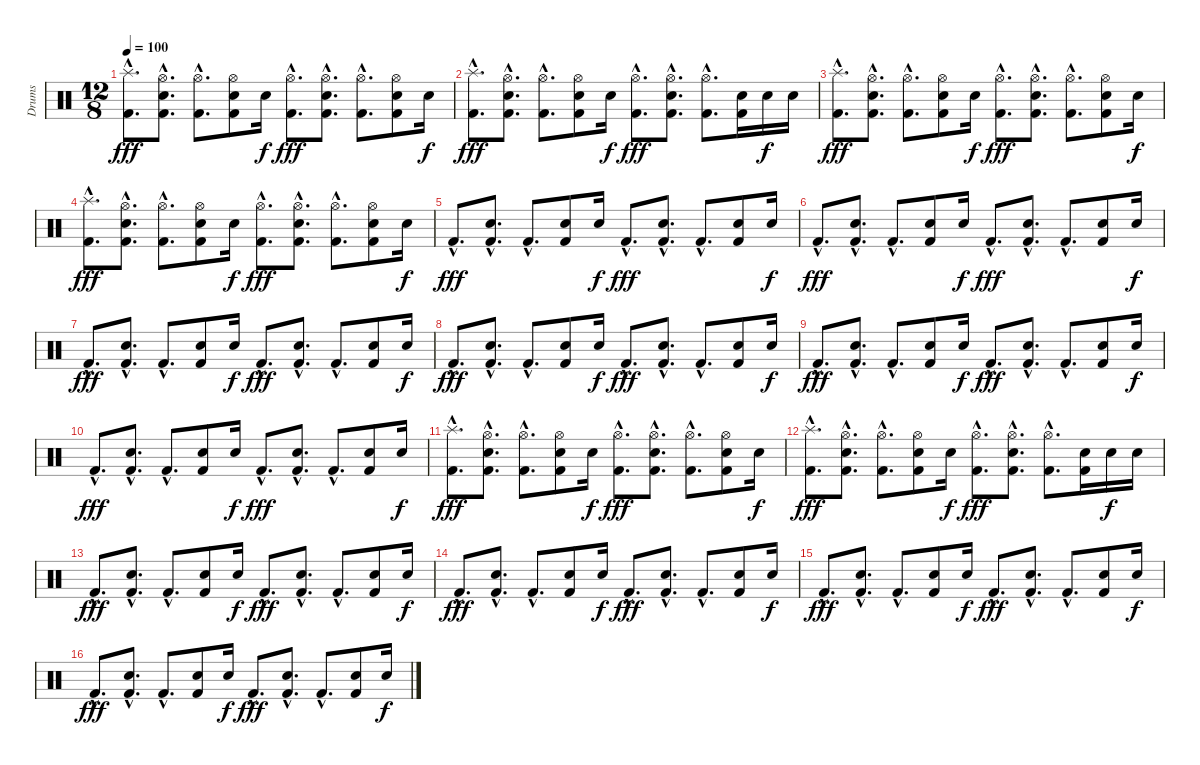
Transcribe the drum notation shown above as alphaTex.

\track ("Drums" "Drums") {instrument percussion}
\staff {score}
\articulation defaults
\ts (12 8)
\tempo 100
\clef neutral
\ks c
("Splash (hit)"{hac} "Kick (hit) 2"{hac}).8{d dy fff} ("Hi-Hat (open)"{hac} "Snare (hit) 2"{hac} "Kick (hit) 2"{hac}).8{d} ("Hi-Hat (open)"{hac} "Kick (hit) 2"{hac}).8{d} ("Hi-Hat (open)" "Snare (hit) 2" "Kick (hit) 2").8 "Snare (hit) 2".16{dy f} ("Hi-Hat (open)"{hac} "Kick (hit) 2"{hac}).8{d dy fff} ("Hi-Hat (open)"{hac} "Snare (hit) 2"{hac} "Kick (hit) 2"{hac}).8{d} ("Hi-Hat (open)"{hac} "Kick (hit) 2"{hac}).8{d} ("Hi-Hat (open)" "Snare (hit) 2" "Kick (hit) 2").8 "Snare (hit) 2".16{dy f} |
("Splash (hit)"{hac} "Kick (hit) 2"{hac}).8{d dy fff} ("Hi-Hat (open)"{hac} "Snare (hit) 2"{hac} "Kick (hit) 2"{hac}).8{d} ("Hi-Hat (open)"{hac} "Kick (hit) 2"{hac}).8{d} ("Hi-Hat (open)" "Snare (hit) 2" "Kick (hit) 2").8 "Snare (hit) 2".16{dy f} ("Hi-Hat (open)"{hac} "Kick (hit) 2"{hac}).8{d dy fff} ("Hi-Hat (open)"{hac} "Snare (hit) 2"{hac} "Kick (hit) 2"{hac}).8{d} ("Hi-Hat (open)"{hac} "Kick (hit) 2"{hac}).8{d} ("Snare (hit) 2" "Kick (hit) 2").16 "Snare (hit) 2".16{dy f} "Snare (hit) 2".16 |
("Splash (hit)"{hac} "Kick (hit) 2"{hac}).8{d dy fff} ("Hi-Hat (open)"{hac} "Snare (hit) 2"{hac} "Kick (hit) 2"{hac}).8{d} ("Hi-Hat (open)"{hac} "Kick (hit) 2"{hac}).8{d} ("Hi-Hat (open)" "Snare (hit) 2" "Kick (hit) 2").8 "Snare (hit) 2".16{dy f} ("Hi-Hat (open)"{hac} "Kick (hit) 2"{hac}).8{d dy fff} ("Hi-Hat (open)"{hac} "Snare (hit) 2"{hac} "Kick (hit) 2"{hac}).8{d} ("Hi-Hat (open)"{hac} "Kick (hit) 2"{hac}).8{d} ("Hi-Hat (open)" "Snare (hit) 2" "Kick (hit) 2").8 "Snare (hit) 2".16{dy f} |
("Splash (hit)"{hac} "Kick (hit) 2"{hac}).8{d dy fff} ("Hi-Hat (open)"{hac} "Snare (hit) 2"{hac} "Kick (hit) 2"{hac}).8{d} ("Hi-Hat (open)"{hac} "Kick (hit) 2"{hac}).8{d} ("Hi-Hat (open)" "Snare (hit) 2" "Kick (hit) 2").8 "Snare (hit) 2".16{dy f} ("Hi-Hat (open)"{hac} "Kick (hit) 2"{hac}).8{d dy fff} ("Hi-Hat (open)"{hac} "Snare (hit) 2"{hac} "Kick (hit) 2"{hac}).8{d} ("Hi-Hat (open)"{hac} "Kick (hit) 2"{hac}).8{d} ("Hi-Hat (open)" "Snare (hit) 2" "Kick (hit) 2").8 "Snare (hit) 2".16{dy f} |
"Kick (hit) 2"{hac}.8{d dy fff} ("Snare (hit) 2"{hac} "Kick (hit) 2"{hac}).8{d} "Kick (hit) 2"{hac}.8{d} ("Snare (hit) 2" "Kick (hit) 2").8 "Snare (hit) 2".16{dy f} "Kick (hit) 2"{hac}.8{d dy fff} ("Snare (hit) 2"{hac} "Kick (hit) 2"{hac}).8{d} "Kick (hit) 2"{hac}.8{d} ("Snare (hit) 2" "Kick (hit) 2").8 "Snare (hit) 2".16{dy f} |
"Kick (hit) 2"{hac}.8{d dy fff} ("Snare (hit) 2"{hac} "Kick (hit) 2"{hac}).8{d} "Kick (hit) 2"{hac}.8{d} ("Snare (hit) 2" "Kick (hit) 2").8 "Snare (hit) 2".16{dy f} "Kick (hit) 2"{hac}.8{d dy fff} ("Snare (hit) 2"{hac} "Kick (hit) 2"{hac}).8{d} "Kick (hit) 2"{hac}.8{d} ("Snare (hit) 2" "Kick (hit) 2").8 "Snare (hit) 2".16{dy f} |
"Kick (hit) 2"{hac}.8{d dy fff} ("Snare (hit) 2"{hac} "Kick (hit) 2"{hac}).8{d} "Kick (hit) 2"{hac}.8{d} ("Snare (hit) 2" "Kick (hit) 2").8 "Snare (hit) 2".16{dy f} "Kick (hit) 2"{hac}.8{d dy fff} ("Snare (hit) 2"{hac} "Kick (hit) 2"{hac}).8{d} "Kick (hit) 2"{hac}.8{d} ("Snare (hit) 2" "Kick (hit) 2").8 "Snare (hit) 2".16{dy f} |
"Kick (hit) 2"{hac}.8{d dy fff} ("Snare (hit) 2"{hac} "Kick (hit) 2"{hac}).8{d} "Kick (hit) 2"{hac}.8{d} ("Snare (hit) 2" "Kick (hit) 2").8 "Snare (hit) 2".16{dy f} "Kick (hit) 2"{hac}.8{d dy fff} ("Snare (hit) 2"{hac} "Kick (hit) 2"{hac}).8{d} "Kick (hit) 2"{hac}.8{d} ("Snare (hit) 2" "Kick (hit) 2").8 "Snare (hit) 2".16{dy f} |
"Kick (hit) 2"{hac}.8{d dy fff} ("Snare (hit) 2"{hac} "Kick (hit) 2"{hac}).8{d} "Kick (hit) 2"{hac}.8{d} ("Snare (hit) 2" "Kick (hit) 2").8 "Snare (hit) 2".16{dy f} "Kick (hit) 2"{hac}.8{d dy fff} ("Snare (hit) 2"{hac} "Kick (hit) 2"{hac}).8{d} "Kick (hit) 2"{hac}.8{d} ("Snare (hit) 2" "Kick (hit) 2").8 "Snare (hit) 2".16{dy f} |
"Kick (hit) 2"{hac}.8{d dy fff} ("Snare (hit) 2"{hac} "Kick (hit) 2"{hac}).8{d} "Kick (hit) 2"{hac}.8{d} ("Snare (hit) 2" "Kick (hit) 2").8 "Snare (hit) 2".16{dy f} "Kick (hit) 2"{hac}.8{d dy fff} ("Snare (hit) 2"{hac} "Kick (hit) 2"{hac}).8{d} "Kick (hit) 2"{hac}.8{d} ("Snare (hit) 2" "Kick (hit) 2").8 "Snare (hit) 2".16{dy f} |
("Splash (hit)"{hac} "Kick (hit) 2"{hac}).8{d dy fff} ("Hi-Hat (open)"{hac} "Snare (hit) 2"{hac} "Kick (hit) 2"{hac}).8{d} ("Hi-Hat (open)"{hac} "Kick (hit) 2"{hac}).8{d} ("Hi-Hat (open)" "Snare (hit) 2" "Kick (hit) 2").8 "Snare (hit) 2".16{dy f} ("Hi-Hat (open)"{hac} "Kick (hit) 2"{hac}).8{d dy fff} ("Hi-Hat (open)"{hac} "Snare (hit) 2"{hac} "Kick (hit) 2"{hac}).8{d} ("Hi-Hat (open)"{hac} "Kick (hit) 2"{hac}).8{d} ("Hi-Hat (open)" "Snare (hit) 2" "Kick (hit) 2").8 "Snare (hit) 2".16{dy f} |
("Splash (hit)"{hac} "Kick (hit) 2"{hac}).8{d dy fff} ("Hi-Hat (open)"{hac} "Snare (hit) 2"{hac} "Kick (hit) 2"{hac}).8{d} ("Hi-Hat (open)"{hac} "Kick (hit) 2"{hac}).8{d} ("Hi-Hat (open)" "Snare (hit) 2" "Kick (hit) 2").8 "Snare (hit) 2".16{dy f} ("Hi-Hat (open)"{hac} "Kick (hit) 2"{hac}).8{d dy fff} ("Hi-Hat (open)"{hac} "Snare (hit) 2"{hac} "Kick (hit) 2"{hac}).8{d} ("Hi-Hat (open)"{hac} "Kick (hit) 2"{hac}).8{d} ("Snare (hit) 2" "Kick (hit) 2").16 "Snare (hit) 2".16{dy f} "Snare (hit) 2".16 |
"Kick (hit) 2"{hac}.8{d dy fff} ("Snare (hit) 2"{hac} "Kick (hit) 2"{hac}).8{d} "Kick (hit) 2"{hac}.8{d} ("Snare (hit) 2" "Kick (hit) 2").8 "Snare (hit) 2".16{dy f} "Kick (hit) 2"{hac}.8{d dy fff} ("Snare (hit) 2"{hac} "Kick (hit) 2"{hac}).8{d} "Kick (hit) 2"{hac}.8{d} ("Snare (hit) 2" "Kick (hit) 2").8 "Snare (hit) 2".16{dy f} |
"Kick (hit) 2"{hac}.8{d dy fff} ("Snare (hit) 2"{hac} "Kick (hit) 2"{hac}).8{d} "Kick (hit) 2"{hac}.8{d} ("Snare (hit) 2" "Kick (hit) 2").8 "Snare (hit) 2".16{dy f} "Kick (hit) 2"{hac}.8{d dy fff} ("Snare (hit) 2"{hac} "Kick (hit) 2"{hac}).8{d} "Kick (hit) 2"{hac}.8{d} ("Snare (hit) 2" "Kick (hit) 2").8 "Snare (hit) 2".16{dy f} |
"Kick (hit) 2"{hac}.8{d dy fff} ("Snare (hit) 2"{hac} "Kick (hit) 2"{hac}).8{d} "Kick (hit) 2"{hac}.8{d} ("Snare (hit) 2" "Kick (hit) 2").8 "Snare (hit) 2".16{dy f} "Kick (hit) 2"{hac}.8{d dy fff} ("Snare (hit) 2"{hac} "Kick (hit) 2"{hac}).8{d} "Kick (hit) 2"{hac}.8{d} ("Snare (hit) 2" "Kick (hit) 2").8 "Snare (hit) 2".16{dy f} |
"Kick (hit) 2"{hac}.8{d dy fff} ("Snare (hit) 2"{hac} "Kick (hit) 2"{hac}).8{d} "Kick (hit) 2"{hac}.8{d} ("Snare (hit) 2" "Kick (hit) 2").8 "Snare (hit) 2".16{dy f} "Kick (hit) 2"{hac}.8{d dy fff} ("Snare (hit) 2"{hac} "Kick (hit) 2"{hac}).8{d} "Kick (hit) 2"{hac}.8{d} ("Snare (hit) 2" "Kick (hit) 2").8 "Snare (hit) 2".16{dy f}
